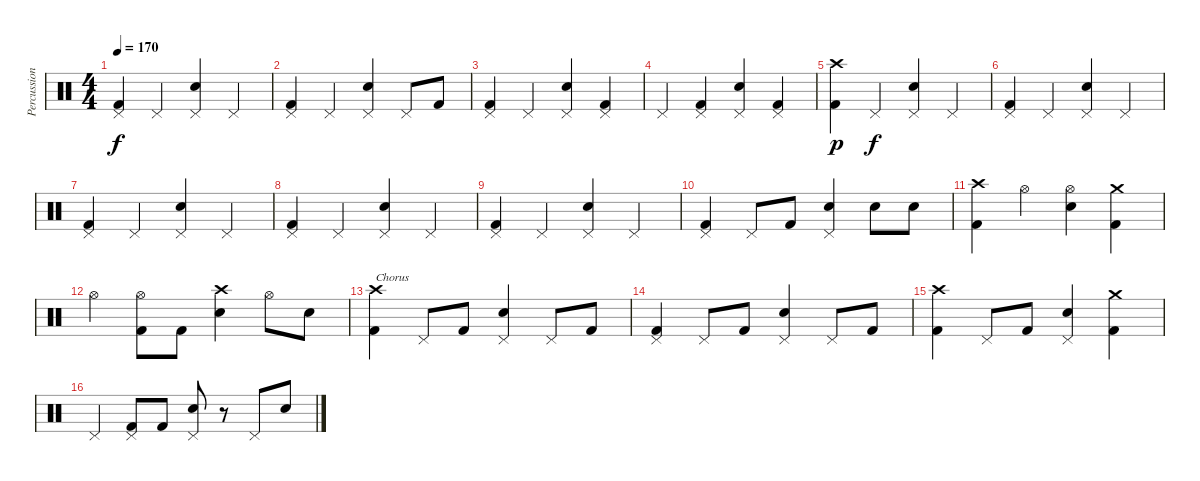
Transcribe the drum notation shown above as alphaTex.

\track ("Percussion" "Percussion") {instrument percussion}
\staff {score}
\articulation defaults
\ts (4 4)
\tempo 170
\clef neutral
\ks c
("Pedal Hi-Hat (hit)" "Kick (hit) 2").4{dy f} "Pedal Hi-Hat (hit)".4 ("Pedal Hi-Hat (hit)" "Snare (hit) 2").4 "Pedal Hi-Hat (hit)".4 |
("Pedal Hi-Hat (hit)" "Kick (hit) 2").4 "Pedal Hi-Hat (hit)".4 ("Pedal Hi-Hat (hit)" "Snare (hit) 2").4 "Pedal Hi-Hat (hit)".8 "Kick (hit) 2".8 |
("Pedal Hi-Hat (hit)" "Kick (hit) 2").4 "Pedal Hi-Hat (hit)".4 ("Pedal Hi-Hat (hit)" "Snare (hit) 2").4 ("Pedal Hi-Hat (hit)" "Kick (hit) 2").4 |
"Pedal Hi-Hat (hit)".4 ("Pedal Hi-Hat (hit)" "Kick (hit) 2").4 ("Pedal Hi-Hat (hit)" "Snare (hit) 2").4 ("Pedal Hi-Hat (hit)" "Kick (hit) 2").4 |
("Crash high (hit)" "Kick (hit) 2").4{dy p} "Pedal Hi-Hat (hit)".4{dy f} ("Pedal Hi-Hat (hit)" "Snare (hit) 2").4 "Pedal Hi-Hat (hit)".4 |
("Pedal Hi-Hat (hit)" "Kick (hit) 2").4 "Pedal Hi-Hat (hit)".4 ("Pedal Hi-Hat (hit)" "Snare (hit) 2").4 "Pedal Hi-Hat (hit)".4 |
("Pedal Hi-Hat (hit)" "Kick (hit) 2").4 "Pedal Hi-Hat (hit)".4 ("Pedal Hi-Hat (hit)" "Snare (hit) 2").4 "Pedal Hi-Hat (hit)".4 |
("Pedal Hi-Hat (hit)" "Kick (hit) 2").4 "Pedal Hi-Hat (hit)".4 ("Pedal Hi-Hat (hit)" "Snare (hit) 2").4 "Pedal Hi-Hat (hit)".4 |
("Pedal Hi-Hat (hit)" "Kick (hit) 2").4 "Pedal Hi-Hat (hit)".4 ("Pedal Hi-Hat (hit)" "Snare (hit) 2").4 "Pedal Hi-Hat (hit)".4 |
("Pedal Hi-Hat (hit)" "Kick (hit) 2").4 "Pedal Hi-Hat (hit)".8 "Kick (hit) 2".8 ("Pedal Hi-Hat (hit)" "Snare (hit) 2").4 "Snare (hit) 2".8 "Snare (hit) 2".8 |
("Crash high (hit)" "Kick (hit) 2").4 "Hi-Hat (open)".4 ("Hi-Hat (open)" "Snare (hit) 2").4 ("Crash medium (hit)" "Kick (hit) 2").4 |
"Hi-Hat (open)".4 ("Hi-Hat (open)" "Kick (hit) 2").8 "Kick (hit) 2".8 ("Crash high (hit)" "Snare (hit) 2").4 "Hi-Hat (open)".8 "Snare (hit) 2".8 |
("Crash high (hit)" "Kick (hit) 2").4{txt "Chorus"} "Pedal Hi-Hat (hit)".8 "Kick (hit) 2".8 ("Pedal Hi-Hat (hit)" "Snare (hit) 2").4 "Pedal Hi-Hat (hit)".8 "Kick (hit) 2".8 |
("Pedal Hi-Hat (hit)" "Kick (hit) 2").4 "Pedal Hi-Hat (hit)".8 "Kick (hit) 2".8 ("Pedal Hi-Hat (hit)" "Snare (hit) 2").4 "Pedal Hi-Hat (hit)".8 "Kick (hit) 2".8 |
("Crash high (hit)" "Kick (hit) 2").4 "Pedal Hi-Hat (hit)".8 "Kick (hit) 2".8 ("Pedal Hi-Hat (hit)" "Snare (hit) 2").4 ("Crash medium (hit)" "Kick (hit) 2").4 |
"Pedal Hi-Hat (hit)".4 ("Pedal Hi-Hat (hit)" "Kick (hit) 2").8 "Kick (hit) 2".8 ("Pedal Hi-Hat (hit)" "Snare (hit) 2").8 r.8 "Pedal Hi-Hat (hit)".8 "Snare (hit) 2".8
